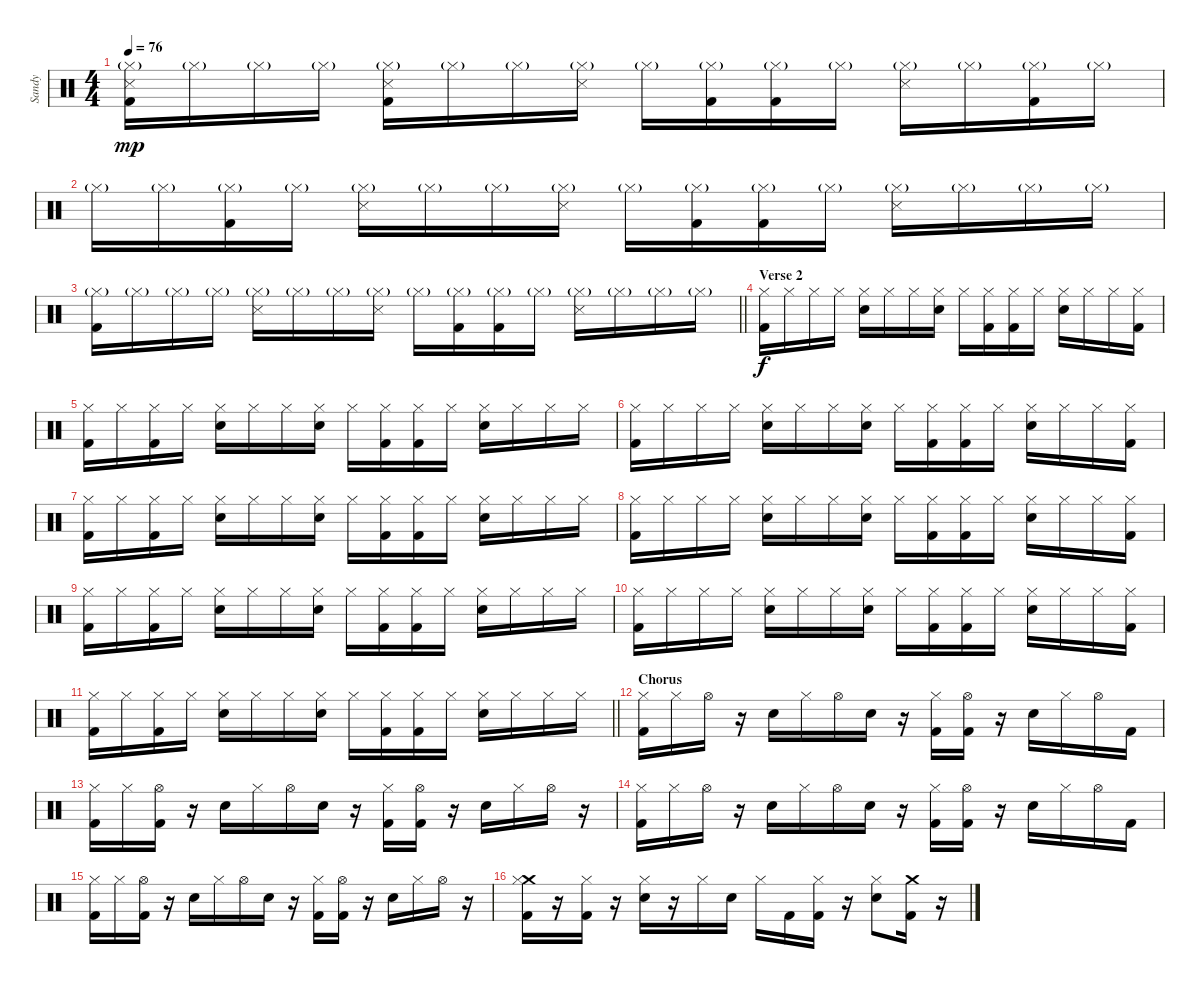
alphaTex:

\track ("Sandy" "Sandy") {instrument percussion}
\staff {score}
\articulation defaults
\ts (4 4)
\tempo 76
\clef neutral
\ks c
("Hi-Hat (closed)"{g} "Snare (side stick) 3" "Kick (hit) 2").16{dy mp} "Hi-Hat (closed)"{g}.16 "Hi-Hat (closed)"{g}.16 "Hi-Hat (closed)"{g}.16 ("Hi-Hat (closed)"{g} "Snare (side stick) 3" "Kick (hit) 2").16 "Hi-Hat (closed)"{g}.16 "Hi-Hat (closed)"{g}.16 ("Hi-Hat (closed)"{g} "Snare (side stick) 3").16 "Hi-Hat (closed)"{g}.16 ("Hi-Hat (closed)"{g} "Kick (hit) 2").16 ("Hi-Hat (closed)"{g} "Kick (hit) 2").16 "Hi-Hat (closed)"{g}.16 ("Hi-Hat (closed)"{g} "Snare (side stick) 3").16 "Hi-Hat (closed)"{g}.16 ("Hi-Hat (closed)"{g} "Kick (hit) 2").16 "Hi-Hat (closed)"{g}.16 |
"Hi-Hat (closed)"{g}.16 "Hi-Hat (closed)"{g}.16 ("Hi-Hat (closed)"{g} "Kick (hit) 2").16 "Hi-Hat (closed)"{g}.16 ("Hi-Hat (closed)"{g} "Snare (side stick) 3").16 "Hi-Hat (closed)"{g}.16 "Hi-Hat (closed)"{g}.16 ("Hi-Hat (closed)"{g} "Snare (side stick) 3").16 "Hi-Hat (closed)"{g}.16 ("Hi-Hat (closed)"{g} "Kick (hit) 2").16 ("Hi-Hat (closed)"{g} "Kick (hit) 2").16 "Hi-Hat (closed)"{g}.16 ("Hi-Hat (closed)"{g} "Snare (side stick) 3").16 "Hi-Hat (closed)"{g}.16 "Hi-Hat (closed)"{g}.16 "Hi-Hat (closed)"{g}.16 |
\barLineRight lightlight
("Hi-Hat (closed)"{g} "Kick (hit) 2").16 "Hi-Hat (closed)"{g}.16 "Hi-Hat (closed)"{g}.16 "Hi-Hat (closed)"{g}.16 ("Hi-Hat (closed)"{g} "Snare (side stick) 3").16 "Hi-Hat (closed)"{g}.16 "Hi-Hat (closed)"{g}.16 ("Hi-Hat (closed)"{g} "Snare (side stick) 3").16 "Hi-Hat (closed)"{g}.16 ("Hi-Hat (closed)"{g} "Kick (hit) 2").16 ("Hi-Hat (closed)"{g} "Kick (hit) 2").16 "Hi-Hat (closed)"{g}.16 ("Hi-Hat (closed)"{g} "Snare (side stick) 3").16 "Hi-Hat (closed)"{g}.16 "Hi-Hat (closed)"{g}.16 "Hi-Hat (closed)"{g}.16 |
\section ("" "Verse 2")
("Hi-Hat (closed)" "Kick (hit) 2").16{dy f} "Hi-Hat (closed)".16 "Hi-Hat (closed)".16 "Hi-Hat (closed)".16 ("Hi-Hat (closed)" "Electric Snare (hit)").16 "Hi-Hat (closed)".16 "Hi-Hat (closed)".16 ("Hi-Hat (closed)" "Electric Snare (hit)").16 "Hi-Hat (closed)".16 ("Hi-Hat (closed)" "Kick (hit) 2").16 ("Hi-Hat (closed)" "Kick (hit) 2").16 "Hi-Hat (closed)".16 ("Hi-Hat (closed)" "Electric Snare (hit)").16 "Hi-Hat (closed)".16 "Hi-Hat (closed)".16 ("Hi-Hat (closed)" "Kick (hit) 2").16 |
("Hi-Hat (closed)" "Kick (hit) 2").16 "Hi-Hat (closed)".16 ("Hi-Hat (closed)" "Kick (hit) 2").16 "Hi-Hat (closed)".16 ("Hi-Hat (closed)" "Electric Snare (hit)").16 "Hi-Hat (closed)".16 "Hi-Hat (closed)".16 ("Hi-Hat (closed)" "Electric Snare (hit)").16 "Hi-Hat (closed)".16 ("Hi-Hat (closed)" "Kick (hit) 2").16 ("Hi-Hat (closed)" "Kick (hit) 2").16 "Hi-Hat (closed)".16 ("Hi-Hat (closed)" "Electric Snare (hit)").16 "Hi-Hat (closed)".16 "Hi-Hat (closed)".16 "Hi-Hat (closed)".16 |
("Hi-Hat (closed)" "Kick (hit) 2").16 "Hi-Hat (closed)".16 "Hi-Hat (closed)".16 "Hi-Hat (closed)".16 ("Hi-Hat (closed)" "Electric Snare (hit)").16 "Hi-Hat (closed)".16 "Hi-Hat (closed)".16 ("Hi-Hat (closed)" "Electric Snare (hit)").16 "Hi-Hat (closed)".16 ("Hi-Hat (closed)" "Kick (hit) 2").16 ("Hi-Hat (closed)" "Kick (hit) 2").16 "Hi-Hat (closed)".16 ("Hi-Hat (closed)" "Electric Snare (hit)").16 "Hi-Hat (closed)".16 "Hi-Hat (closed)".16 ("Hi-Hat (closed)" "Kick (hit) 2").16 |
("Hi-Hat (closed)" "Kick (hit) 2").16 "Hi-Hat (closed)".16 ("Hi-Hat (closed)" "Kick (hit) 2").16 "Hi-Hat (closed)".16 ("Hi-Hat (closed)" "Electric Snare (hit)").16 "Hi-Hat (closed)".16 "Hi-Hat (closed)".16 ("Hi-Hat (closed)" "Electric Snare (hit)").16 "Hi-Hat (closed)".16 ("Hi-Hat (closed)" "Kick (hit) 2").16 ("Hi-Hat (closed)" "Kick (hit) 2").16 "Hi-Hat (closed)".16 ("Hi-Hat (closed)" "Electric Snare (hit)").16 "Hi-Hat (closed)".16 "Hi-Hat (closed)".16 "Hi-Hat (closed)".16 |
("Hi-Hat (closed)" "Kick (hit) 2").16 "Hi-Hat (closed)".16 "Hi-Hat (closed)".16 "Hi-Hat (closed)".16 ("Hi-Hat (closed)" "Electric Snare (hit)").16 "Hi-Hat (closed)".16 "Hi-Hat (closed)".16 ("Hi-Hat (closed)" "Electric Snare (hit)").16 "Hi-Hat (closed)".16 ("Hi-Hat (closed)" "Kick (hit) 2").16 ("Hi-Hat (closed)" "Kick (hit) 2").16 "Hi-Hat (closed)".16 ("Hi-Hat (closed)" "Electric Snare (hit)").16 "Hi-Hat (closed)".16 "Hi-Hat (closed)".16 ("Hi-Hat (closed)" "Kick (hit) 2").16 |
("Hi-Hat (closed)" "Kick (hit) 2").16 "Hi-Hat (closed)".16 ("Hi-Hat (closed)" "Kick (hit) 2").16 "Hi-Hat (closed)".16 ("Hi-Hat (closed)" "Electric Snare (hit)").16 "Hi-Hat (closed)".16 "Hi-Hat (closed)".16 ("Hi-Hat (closed)" "Electric Snare (hit)").16 "Hi-Hat (closed)".16 ("Hi-Hat (closed)" "Kick (hit) 2").16 ("Hi-Hat (closed)" "Kick (hit) 2").16 "Hi-Hat (closed)".16 ("Hi-Hat (closed)" "Electric Snare (hit)").16 "Hi-Hat (closed)".16 "Hi-Hat (closed)".16 "Hi-Hat (closed)".16 |
("Hi-Hat (closed)" "Kick (hit) 2").16 "Hi-Hat (closed)".16 "Hi-Hat (closed)".16 "Hi-Hat (closed)".16 ("Hi-Hat (closed)" "Electric Snare (hit)").16 "Hi-Hat (closed)".16 "Hi-Hat (closed)".16 ("Hi-Hat (closed)" "Electric Snare (hit)").16 "Hi-Hat (closed)".16 ("Hi-Hat (closed)" "Kick (hit) 2").16 ("Hi-Hat (closed)" "Kick (hit) 2").16 "Hi-Hat (closed)".16 ("Hi-Hat (closed)" "Electric Snare (hit)").16 "Hi-Hat (closed)".16 "Hi-Hat (closed)".16 ("Hi-Hat (closed)" "Kick (hit) 2").16 |
\barLineRight lightlight
("Hi-Hat (closed)" "Kick (hit) 2").16 "Hi-Hat (closed)".16 ("Hi-Hat (closed)" "Kick (hit) 2").16 "Hi-Hat (closed)".16 ("Hi-Hat (closed)" "Electric Snare (hit)").16 "Hi-Hat (closed)".16 "Hi-Hat (closed)".16 ("Hi-Hat (closed)" "Electric Snare (hit)").16 "Hi-Hat (closed)".16 ("Hi-Hat (closed)" "Kick (hit) 2").16 ("Hi-Hat (closed)" "Kick (hit) 2").16 "Hi-Hat (closed)".16 ("Hi-Hat (closed)" "Electric Snare (hit)").16 "Hi-Hat (closed)".16 "Hi-Hat (closed)".16 "Hi-Hat (closed)".16 |
\section ("" "Chorus")
("Hi-Hat (closed)" "Kick (hit) 2").16 "Hi-Hat (closed)".16 "Hi-Hat (open)".16 r.16 "Electric Snare (hit)".16 "Hi-Hat (closed)".16 "Hi-Hat (open)".16 "Electric Snare (hit)".16 r.16 ("Hi-Hat (closed)" "Kick (hit) 2").16 ("Hi-Hat (open)" "Kick (hit) 2").16 r.16 "Electric Snare (hit)".16 "Hi-Hat (closed)".16 "Hi-Hat (open)".16 "Kick (hit) 2".16 |
("Hi-Hat (closed)" "Kick (hit) 2").16 "Hi-Hat (closed)".16 ("Hi-Hat (open)" "Kick (hit) 2").16 r.16 "Electric Snare (hit)".16 "Hi-Hat (closed)".16 "Hi-Hat (open)".16 "Electric Snare (hit)".16 r.16 ("Hi-Hat (closed)" "Kick (hit) 2").16 ("Hi-Hat (open)" "Kick (hit) 2").16 r.16 "Electric Snare (hit)".16 "Hi-Hat (closed)".16 "Hi-Hat (open)".16 r.16 |
("Hi-Hat (closed)" "Kick (hit) 2").16 "Hi-Hat (closed)".16 "Hi-Hat (open)".16 r.16 "Electric Snare (hit)".16 "Hi-Hat (closed)".16 "Hi-Hat (open)".16 "Electric Snare (hit)".16 r.16 ("Hi-Hat (closed)" "Kick (hit) 2").16 ("Hi-Hat (open)" "Kick (hit) 2").16 r.16 "Electric Snare (hit)".16 "Hi-Hat (closed)".16 "Hi-Hat (open)".16 "Kick (hit) 2".16 |
("Hi-Hat (closed)" "Kick (hit) 2").16 "Hi-Hat (closed)".16 ("Hi-Hat (open)" "Kick (hit) 2").16 r.16 "Electric Snare (hit)".16 "Hi-Hat (closed)".16 "Hi-Hat (open)".16 "Electric Snare (hit)".16 r.16 ("Hi-Hat (closed)" "Kick (hit) 2").16 ("Hi-Hat (open)" "Kick (hit) 2").16 r.16 "Electric Snare (hit)".16 "Hi-Hat (closed)".16 "Hi-Hat (open)".16 r.16 |
("Crash medium (hit)" "Hi-Hat (closed)" "Kick (hit) 2").16 r.16 ("Hi-Hat (closed)" "Kick (hit) 2").16 r.16 ("Hi-Hat (closed)" "Electric Snare (hit)").16 r.16 "Hi-Hat (closed)".16 "Electric Snare (hit)".16 "Hi-Hat (closed)".16 "Kick (hit) 2".16 ("Hi-Hat (closed)" "Kick (hit) 2").16 r.16 ("Hi-Hat (closed)" "Electric Snare (hit)").8 ("Crash medium (hit)" "Kick (hit) 2").16 r.16
